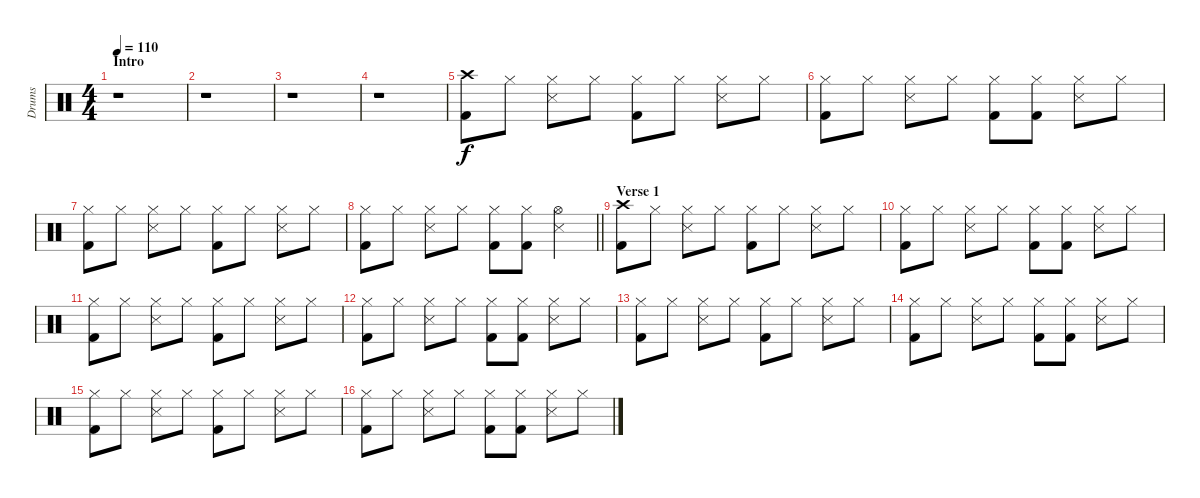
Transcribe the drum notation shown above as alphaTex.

\track ("Drums" "Drums") {instrument percussion}
\staff {score}
\articulation defaults
\ts (4 4)
\section ("" "Intro")
\tempo 110
\clef neutral
\ks c
r.1{dy f} |
r.1 |
r.1 |
r.1 |
("Crash high (hit)" "Kick (hit) 2").8 "Hi-Hat (closed)".8 ("Hi-Hat (closed)" "Snare (side stick) 3").8 "Hi-Hat (closed)".8 ("Hi-Hat (closed)" "Kick (hit) 2").8 "Hi-Hat (closed)".8 ("Hi-Hat (closed)" "Snare (side stick) 3").8 "Hi-Hat (closed)".8 |
("Hi-Hat (closed)" "Kick (hit) 2").8 "Hi-Hat (closed)".8 ("Hi-Hat (closed)" "Snare (side stick) 3").8 "Hi-Hat (closed)".8 ("Hi-Hat (closed)" "Kick (hit) 2").8 ("Hi-Hat (closed)" "Kick (hit) 2").8 ("Hi-Hat (closed)" "Snare (side stick) 3").8 "Hi-Hat (closed)".8 |
("Hi-Hat (closed)" "Kick (hit) 2").8 "Hi-Hat (closed)".8 ("Hi-Hat (closed)" "Snare (side stick) 3").8 "Hi-Hat (closed)".8 ("Hi-Hat (closed)" "Kick (hit) 2").8 "Hi-Hat (closed)".8 ("Hi-Hat (closed)" "Snare (side stick) 3").8 "Hi-Hat (closed)".8 |
\barLineRight lightlight
("Hi-Hat (closed)" "Kick (hit) 2").8 "Hi-Hat (closed)".8 ("Hi-Hat (closed)" "Snare (side stick) 3").8 "Hi-Hat (closed)".8 ("Hi-Hat (closed)" "Kick (hit) 2").8 ("Hi-Hat (closed)" "Kick (hit) 2").8 ("Hi-Hat (open)" "Snare (side stick) 3").4 |
\section ("" "Verse 1")
("Crash high (hit)" "Kick (hit) 2").8 "Hi-Hat (closed)".8 ("Hi-Hat (closed)" "Snare (side stick) 3").8 "Hi-Hat (closed)".8 ("Hi-Hat (closed)" "Kick (hit) 2").8 "Hi-Hat (closed)".8 ("Hi-Hat (closed)" "Snare (side stick) 3").8 "Hi-Hat (closed)".8 |
("Hi-Hat (closed)" "Kick (hit) 2").8 "Hi-Hat (closed)".8 ("Hi-Hat (closed)" "Snare (side stick) 3").8 "Hi-Hat (closed)".8 ("Hi-Hat (closed)" "Kick (hit) 2").8 ("Hi-Hat (closed)" "Kick (hit) 2").8 ("Hi-Hat (closed)" "Snare (side stick) 3").8 "Hi-Hat (closed)".8 |
("Hi-Hat (closed)" "Kick (hit) 2").8 "Hi-Hat (closed)".8 ("Hi-Hat (closed)" "Snare (side stick) 3").8 "Hi-Hat (closed)".8 ("Hi-Hat (closed)" "Kick (hit) 2").8 "Hi-Hat (closed)".8 ("Hi-Hat (closed)" "Snare (side stick) 3").8 "Hi-Hat (closed)".8 |
("Hi-Hat (closed)" "Kick (hit) 2").8 "Hi-Hat (closed)".8 ("Hi-Hat (closed)" "Snare (side stick) 3").8 "Hi-Hat (closed)".8 ("Hi-Hat (closed)" "Kick (hit) 2").8 ("Hi-Hat (closed)" "Kick (hit) 2").8 ("Hi-Hat (closed)" "Snare (side stick) 3").8 "Hi-Hat (closed)".8 |
("Hi-Hat (closed)" "Kick (hit) 2").8 "Hi-Hat (closed)".8 ("Hi-Hat (closed)" "Snare (side stick) 3").8 "Hi-Hat (closed)".8 ("Hi-Hat (closed)" "Kick (hit) 2").8 "Hi-Hat (closed)".8 ("Hi-Hat (closed)" "Snare (side stick) 3").8 "Hi-Hat (closed)".8 |
("Hi-Hat (closed)" "Kick (hit) 2").8 "Hi-Hat (closed)".8 ("Hi-Hat (closed)" "Snare (side stick) 3").8 "Hi-Hat (closed)".8 ("Hi-Hat (closed)" "Kick (hit) 2").8 ("Hi-Hat (closed)" "Kick (hit) 2").8 ("Hi-Hat (closed)" "Snare (side stick) 3").8 "Hi-Hat (closed)".8 |
("Hi-Hat (closed)" "Kick (hit) 2").8 "Hi-Hat (closed)".8 ("Hi-Hat (closed)" "Snare (side stick) 3").8 "Hi-Hat (closed)".8 ("Hi-Hat (closed)" "Kick (hit) 2").8 "Hi-Hat (closed)".8 ("Hi-Hat (closed)" "Snare (side stick) 3").8 "Hi-Hat (closed)".8 |
("Hi-Hat (closed)" "Kick (hit) 2").8 "Hi-Hat (closed)".8 ("Hi-Hat (closed)" "Snare (side stick) 3").8 "Hi-Hat (closed)".8 ("Hi-Hat (closed)" "Kick (hit) 2").8 ("Hi-Hat (closed)" "Kick (hit) 2").8 ("Hi-Hat (closed)" "Snare (side stick) 3").8 "Hi-Hat (closed)".8
